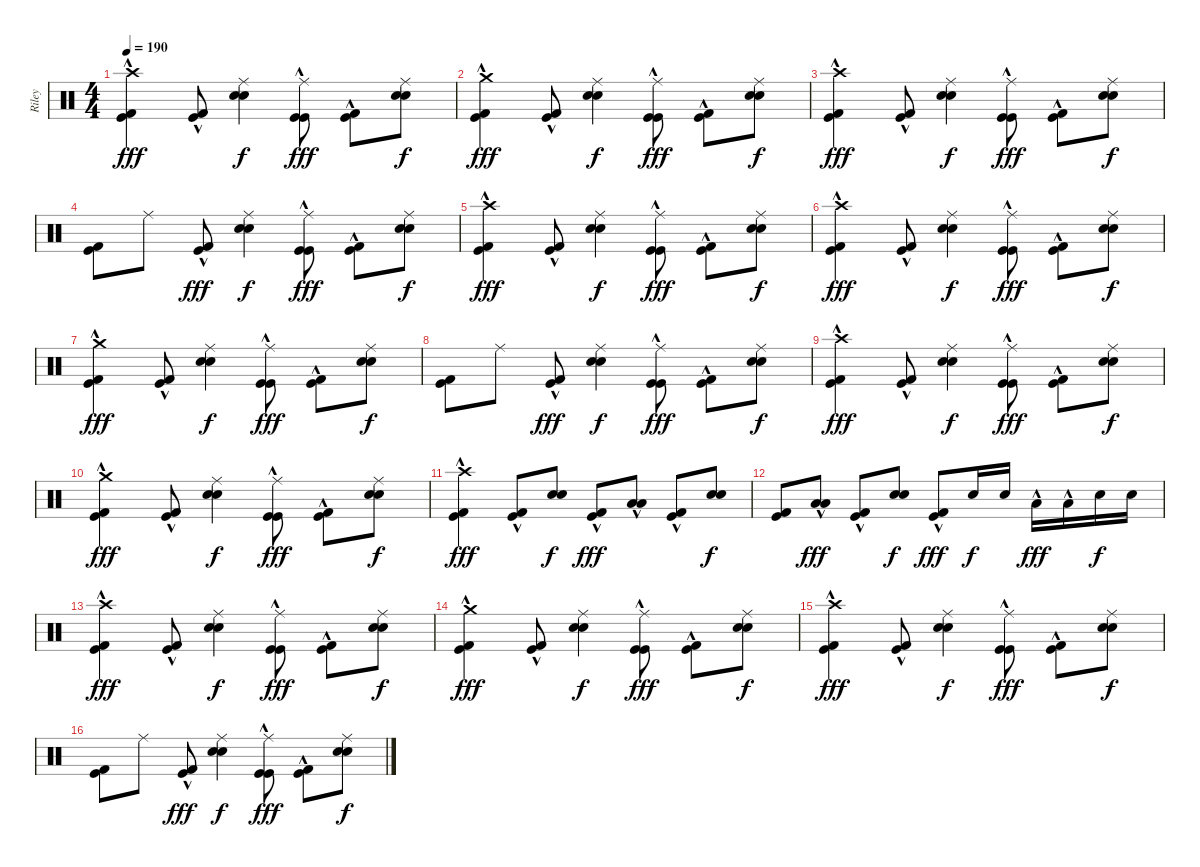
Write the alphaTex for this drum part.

\track ("Riley" "Riley") {instrument percussion}
\staff {score}
\articulation defaults
\ts (4 4)
\tempo 190
\clef neutral
\ks c
("Crash high (hit)" "Kick (hit)"{hac} "Kick (hit) 2"{hac}).4{dy fff} ("Kick (hit)"{hac} "Kick (hit) 2"{hac}).8 ("Ride (middle)" "Electric Snare (hit)" "Snare (hit) 2").4{dy f} ("Ride (middle)" "Kick (hit)"{hac} "Kick (hit)"{hac}).8{dy fff} ("Kick (hit)"{hac} "Kick (hit) 2"{hac}).8 ("Ride (middle)" "Electric Snare (hit)" "Snare (hit) 2").8{dy f} |
("Crash medium (hit)" "Kick (hit)"{hac} "Kick (hit) 2"{hac}).4{dy fff} ("Kick (hit)"{hac} "Kick (hit) 2"{hac}).8 ("Ride (middle)" "Electric Snare (hit)" "Snare (hit) 2").4{dy f} ("Ride (middle)" "Kick (hit)"{hac} "Kick (hit)"{hac}).8{dy fff} ("Kick (hit)"{hac} "Kick (hit) 2"{hac}).8 ("Ride (middle)" "Electric Snare (hit)" "Snare (hit) 2").8{dy f} |
("Crash high (hit)" "Kick (hit)"{hac} "Kick (hit) 2"{hac}).4{dy fff} ("Kick (hit)"{hac} "Kick (hit) 2"{hac}).8 ("Ride (middle)" "Electric Snare (hit)" "Snare (hit) 2").4{dy f} ("Ride (middle)" "Kick (hit)"{hac} "Kick (hit)"{hac}).8{dy fff} ("Kick (hit)"{hac} "Kick (hit) 2"{hac}).8 ("Ride (middle)" "Electric Snare (hit)" "Snare (hit) 2").8{dy f} |
("Kick (hit)" "Kick (hit) 2").8 "Ride (middle)".8 ("Kick (hit)"{hac} "Kick (hit) 2"{hac}).8{dy fff} ("Ride (middle)" "Electric Snare (hit)" "Snare (hit) 2").4{dy f} ("Ride (middle)" "Kick (hit)"{hac} "Kick (hit)"{hac}).8{dy fff} ("Kick (hit)"{hac} "Kick (hit) 2"{hac}).8 ("Ride (middle)" "Electric Snare (hit)" "Snare (hit) 2").8{dy f} |
("Crash high (hit)" "Kick (hit)"{hac} "Kick (hit) 2"{hac}).4{dy fff} ("Kick (hit)"{hac} "Kick (hit) 2"{hac}).8 ("Ride (middle)" "Electric Snare (hit)" "Snare (hit) 2").4{dy f} ("Ride (middle)" "Kick (hit)"{hac} "Kick (hit)"{hac}).8{dy fff} ("Kick (hit)"{hac} "Kick (hit) 2"{hac}).8 ("Ride (middle)" "Electric Snare (hit)" "Snare (hit) 2").8{dy f} |
("Crash high (hit)" "Kick (hit)"{hac} "Kick (hit) 2"{hac}).4{dy fff} ("Kick (hit)"{hac} "Kick (hit) 2"{hac}).8 ("Ride (middle)" "Electric Snare (hit)" "Snare (hit) 2").4{dy f} ("Ride (middle)" "Kick (hit)"{hac} "Kick (hit)"{hac}).8{dy fff} ("Kick (hit)"{hac} "Kick (hit) 2"{hac}).8 ("Ride (middle)" "Electric Snare (hit)" "Snare (hit) 2").8{dy f} |
("Crash medium (hit)" "Kick (hit)"{hac} "Kick (hit) 2"{hac}).4{dy fff} ("Kick (hit)"{hac} "Kick (hit) 2"{hac}).8 ("Ride (middle)" "Electric Snare (hit)" "Snare (hit) 2").4{dy f} ("Ride (middle)" "Kick (hit)"{hac} "Kick (hit)"{hac}).8{dy fff} ("Kick (hit)"{hac} "Kick (hit) 2"{hac}).8 ("Ride (middle)" "Electric Snare (hit)" "Snare (hit) 2").8{dy f} |
("Kick (hit)" "Kick (hit) 2").8 "Ride (middle)".8 ("Kick (hit)"{hac} "Kick (hit) 2"{hac}).8{dy fff} ("Ride (middle)" "Electric Snare (hit)" "Snare (hit) 2").4{dy f} ("Ride (middle)" "Kick (hit)"{hac} "Kick (hit)"{hac}).8{dy fff} ("Kick (hit)"{hac} "Kick (hit) 2"{hac}).8 ("Ride (middle)" "Electric Snare (hit)" "Snare (hit) 2").8{dy f} |
("Crash high (hit)" "Kick (hit)"{hac} "Kick (hit) 2"{hac}).4{dy fff} ("Kick (hit)"{hac} "Kick (hit) 2"{hac}).8 ("Ride (middle)" "Electric Snare (hit)" "Snare (hit) 2").4{dy f} ("Ride (middle)" "Kick (hit)"{hac} "Kick (hit)"{hac}).8{dy fff} ("Kick (hit)"{hac} "Kick (hit) 2"{hac}).8 ("Ride (middle)" "Electric Snare (hit)" "Snare (hit) 2").8{dy f} |
("Crash medium (hit)" "Kick (hit)"{hac} "Kick (hit) 2"{hac}).4{dy fff} ("Kick (hit)"{hac} "Kick (hit) 2"{hac}).8 ("Ride (middle)" "Electric Snare (hit)" "Snare (hit) 2").4{dy f} ("Ride (middle)" "Kick (hit)"{hac} "Kick (hit)"{hac}).8{dy fff} ("Kick (hit)"{hac} "Kick (hit) 2"{hac}).8 ("Ride (middle)" "Electric Snare (hit)" "Snare (hit) 2").8{dy f} |
("Crash high (hit)" "Kick (hit)"{hac} "Kick (hit) 2"{hac}).4{dy fff} ("Kick (hit)"{hac} "Kick (hit) 2"{hac}).8 ("Electric Snare (hit)" "Snare (hit) 2").8{dy f} ("Kick (hit)"{hac} "Kick (hit) 2"{hac}).8{dy fff} ("Low Tom (hit)"{hac} "Low Floor Tom (hit)"{hac}).8 ("Kick (hit)"{hac} "Kick (hit) 2"{hac}).8 ("Electric Snare (hit)" "Snare (hit) 2").8{dy f} |
("Kick (hit)" "Kick (hit) 2").8 ("Low Tom (hit)"{hac} "Low Floor Tom (hit)"{hac}).8{dy fff} ("Kick (hit)"{hac} "Kick (hit) 2"{hac}).8 ("Electric Snare (hit)" "Snare (hit) 2").8{dy f} ("Kick (hit)"{hac} "Kick (hit) 2"{hac}).8{dy fff} "Electric Snare (hit)".16{dy f} "Electric Snare (hit)".16 "Low Tom (hit)"{hac}.16{dy fff} "Low Tom (hit)"{hac}.16 "Electric Snare (hit)".16{dy f} "Electric Snare (hit)".16 |
("Crash high (hit)" "Kick (hit)"{hac} "Kick (hit) 2"{hac}).4{dy fff} ("Kick (hit)"{hac} "Kick (hit) 2"{hac}).8 ("Ride (middle)" "Electric Snare (hit)" "Snare (hit) 2").4{dy f} ("Ride (middle)" "Kick (hit)"{hac} "Kick (hit)"{hac}).8{dy fff} ("Kick (hit)"{hac} "Kick (hit) 2"{hac}).8 ("Ride (middle)" "Electric Snare (hit)" "Snare (hit) 2").8{dy f} |
("Crash medium (hit)" "Kick (hit)"{hac} "Kick (hit) 2"{hac}).4{dy fff} ("Kick (hit)"{hac} "Kick (hit) 2"{hac}).8 ("Ride (middle)" "Electric Snare (hit)" "Snare (hit) 2").4{dy f} ("Ride (middle)" "Kick (hit)"{hac} "Kick (hit)"{hac}).8{dy fff} ("Kick (hit)"{hac} "Kick (hit) 2"{hac}).8 ("Ride (middle)" "Electric Snare (hit)" "Snare (hit) 2").8{dy f} |
("Crash high (hit)" "Kick (hit)"{hac} "Kick (hit) 2"{hac}).4{dy fff} ("Kick (hit)"{hac} "Kick (hit) 2"{hac}).8 ("Ride (middle)" "Electric Snare (hit)" "Snare (hit) 2").4{dy f} ("Ride (middle)" "Kick (hit)"{hac} "Kick (hit)"{hac}).8{dy fff} ("Kick (hit)"{hac} "Kick (hit) 2"{hac}).8 ("Ride (middle)" "Electric Snare (hit)" "Snare (hit) 2").8{dy f} |
("Kick (hit)" "Kick (hit) 2").8 "Ride (middle)".8 ("Kick (hit)"{hac} "Kick (hit) 2"{hac}).8{dy fff} ("Ride (middle)" "Electric Snare (hit)" "Snare (hit) 2").4{dy f} ("Ride (middle)" "Kick (hit)"{hac} "Kick (hit)"{hac}).8{dy fff} ("Kick (hit)"{hac} "Kick (hit) 2"{hac}).8 ("Ride (middle)" "Electric Snare (hit)" "Snare (hit) 2").8{dy f}
